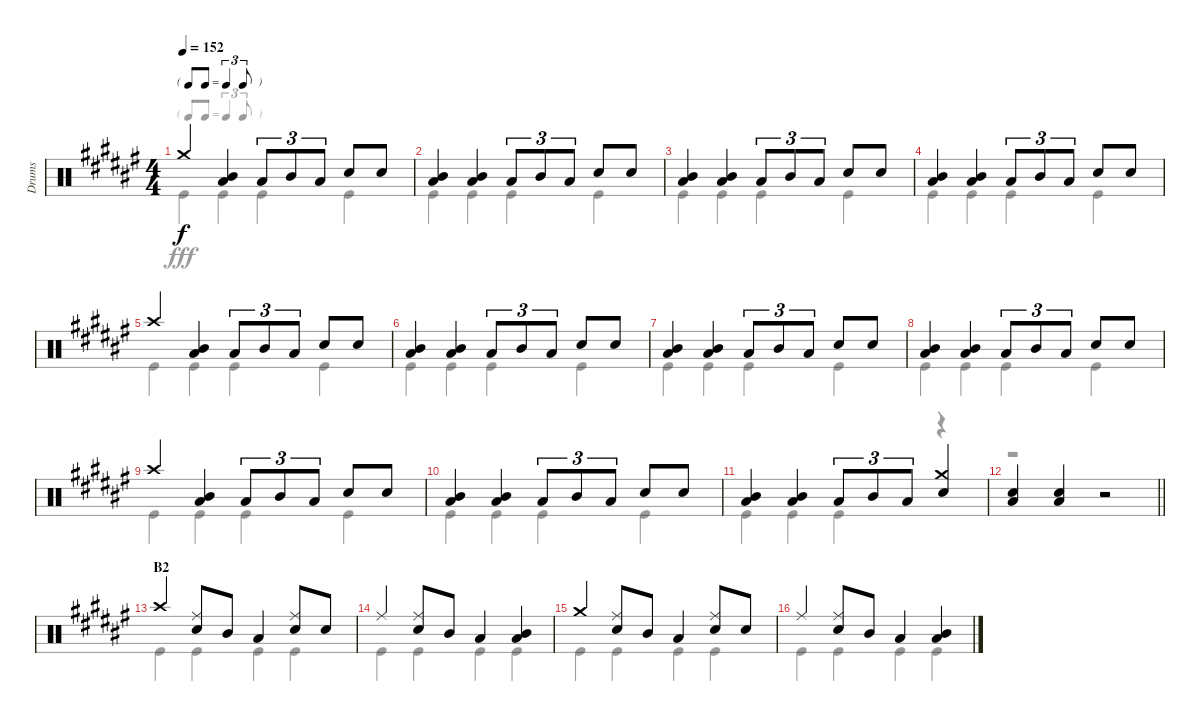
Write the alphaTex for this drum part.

\track ("Drums" "Drums") {instrument percussion}
\staff {score}
\articulation defaults
\voice
\ts (4 4)
\tf triplet8th
\tempo 152
\clef neutral
\ks f# "Crash medium (hit)".4{dy f}
("Mid Tom (hit)" "Low Tom (hit)").4 "Low Tom (hit)".8{tu (3 2)} "Mid Tom (hit)".8{tu (3 2)} "Low Tom (hit)".8{tu (3 2)} "Snare (hit) 2".8 "Snare (hit) 2".8 |
("Mid Tom (hit)" "Low Tom (hit)").4 ("Mid Tom (hit)" "Low Tom (hit)").4 "Low Tom (hit)".8{tu (3 2)} "Mid Tom (hit)".8{tu (3 2)} "Low Tom (hit)".8{tu (3 2)} "Snare (hit) 2".8 "Snare (hit) 2".8 |
("Mid Tom (hit)" "Low Tom (hit)").4 ("Mid Tom (hit)" "Low Tom (hit)").4 "Low Tom (hit)".8{tu (3 2)} "Mid Tom (hit)".8{tu (3 2)} "Low Tom (hit)".8{tu (3 2)} "Snare (hit) 2".8 "Snare (hit) 2".8 |
("Mid Tom (hit)" "Low Tom (hit)").4 ("Mid Tom (hit)" "Low Tom (hit)").4 "Low Tom (hit)".8{tu (3 2)} "Mid Tom (hit)".8{tu (3 2)} "Low Tom (hit)".8{tu (3 2)} "Snare (hit) 2".8 "Snare (hit) 2".8 |
"Crash high (hit)".4 ("Mid Tom (hit)" "Low Tom (hit)").4 "Low Tom (hit)".8{tu (3 2)} "Mid Tom (hit)".8{tu (3 2)} "Low Tom (hit)".8{tu (3 2)} "Snare (hit) 2".8 "Snare (hit) 2".8 |
("Mid Tom (hit)" "Low Tom (hit)").4 ("Mid Tom (hit)" "Low Tom (hit)").4 "Low Tom (hit)".8{tu (3 2)} "Mid Tom (hit)".8{tu (3 2)} "Low Tom (hit)".8{tu (3 2)} "Snare (hit) 2".8 "Snare (hit) 2".8 |
("Mid Tom (hit)" "Low Tom (hit)").4 ("Mid Tom (hit)" "Low Tom (hit)").4 "Low Tom (hit)".8{tu (3 2)} "Mid Tom (hit)".8{tu (3 2)} "Low Tom (hit)".8{tu (3 2)} "Snare (hit) 2".8 "Snare (hit) 2".8 |
("Mid Tom (hit)" "Low Tom (hit)").4 ("Mid Tom (hit)" "Low Tom (hit)").4 "Low Tom (hit)".8{tu (3 2)} "Mid Tom (hit)".8{tu (3 2)} "Low Tom (hit)".8{tu (3 2)} "Snare (hit) 2".8 "Snare (hit) 2".8 |
"Crash high (hit)".4 ("Mid Tom (hit)" "Low Tom (hit)").4 "Low Tom (hit)".8{tu (3 2)} "Mid Tom (hit)".8{tu (3 2)} "Low Tom (hit)".8{tu (3 2)} "Snare (hit) 2".8 "Snare (hit) 2".8 |
("Mid Tom (hit)" "Low Tom (hit)").4 ("Mid Tom (hit)" "Low Tom (hit)").4 "Low Tom (hit)".8{tu (3 2)} "Mid Tom (hit)".8{tu (3 2)} "Low Tom (hit)".8{tu (3 2)} "Snare (hit) 2".8 "Snare (hit) 2".8 |
("Mid Tom (hit)" "Low Tom (hit)").4 ("Mid Tom (hit)" "Low Tom (hit)").4 "Low Tom (hit)".8{tu (3 2)} "Mid Tom (hit)".8{tu (3 2)} "Low Tom (hit)".8{tu (3 2)} ("Crash medium (hit)" "Snare (hit) 2").4 |
\barLineRight lightlight
("Snare (hit) 2" "Low Tom (hit)").4 ("Snare (hit) 2" "Low Tom (hit)").4 r.2 |
\section ("" "B2")
"Crash high (hit)".4 ("Ride (middle)" "Snare (hit) 2").8 "Mid Tom (hit)".8 "Low Tom (hit)".4 ("Ride (middle)" "Snare (hit) 2").8 "Snare (hit) 2".8 |
"Ride (middle)".4 ("Ride (middle)" "Snare (hit) 2").8 "Mid Tom (hit)".8 "Low Tom (hit)".4 ("Mid Tom (hit)" "Low Tom (hit)").4 |
"Crash medium (hit)".4 ("Ride (middle)" "Snare (hit) 2").8 "Mid Tom (hit)".8 "Low Tom (hit)".4 ("Ride (middle)" "Snare (hit) 2").8 "Snare (hit) 2".8 |
"Ride (middle)".4 ("Ride (middle)" "Snare (hit) 2").8 "Mid Tom (hit)".8 "Low Tom (hit)".4 ("Mid Tom (hit)" "Low Tom (hit)").4
\voice
\clef neutral
\ottava regular
\simile none
\ks f# "Kick (hit)".4{dy fff} "Kick (hit)".4 "Kick (hit)".4 "Kick (hit)".4
|
"Kick (hit)".4 "Kick (hit)".4 "Kick (hit)".4 "Kick (hit)".4 |
"Kick (hit)".4 "Kick (hit)".4 "Kick (hit)".4 "Kick (hit)".4 |
"Kick (hit)".4 "Kick (hit)".4 "Kick (hit)".4 "Kick (hit)".4 |
"Kick (hit)".4 "Kick (hit)".4 "Kick (hit)".4 "Kick (hit)".4 |
"Kick (hit)".4 "Kick (hit)".4 "Kick (hit)".4 "Kick (hit)".4 |
"Kick (hit)".4 "Kick (hit)".4 "Kick (hit)".4 "Kick (hit)".4 |
"Kick (hit)".4 "Kick (hit)".4 "Kick (hit)".4 "Kick (hit)".4 |
"Kick (hit)".4 "Kick (hit)".4 "Kick (hit)".4 "Kick (hit)".4 |
"Kick (hit)".4 "Kick (hit)".4 "Kick (hit)".4 "Kick (hit)".4 |
"Kick (hit)".4 "Kick (hit)".4 "Kick (hit)".4 r.4 |
\barLineRight lightlight
r.1 |
"Kick (hit)".4 "Kick (hit)".4 "Kick (hit)".4 "Kick (hit)".4 |
"Kick (hit)".4 "Kick (hit)".4 "Kick (hit)".4 "Kick (hit)".4 |
"Kick (hit)".4 "Kick (hit)".4 "Kick (hit)".4 "Kick (hit)".4 |
"Kick (hit)".4 "Kick (hit)".4 "Kick (hit)".4 "Kick (hit)".4
